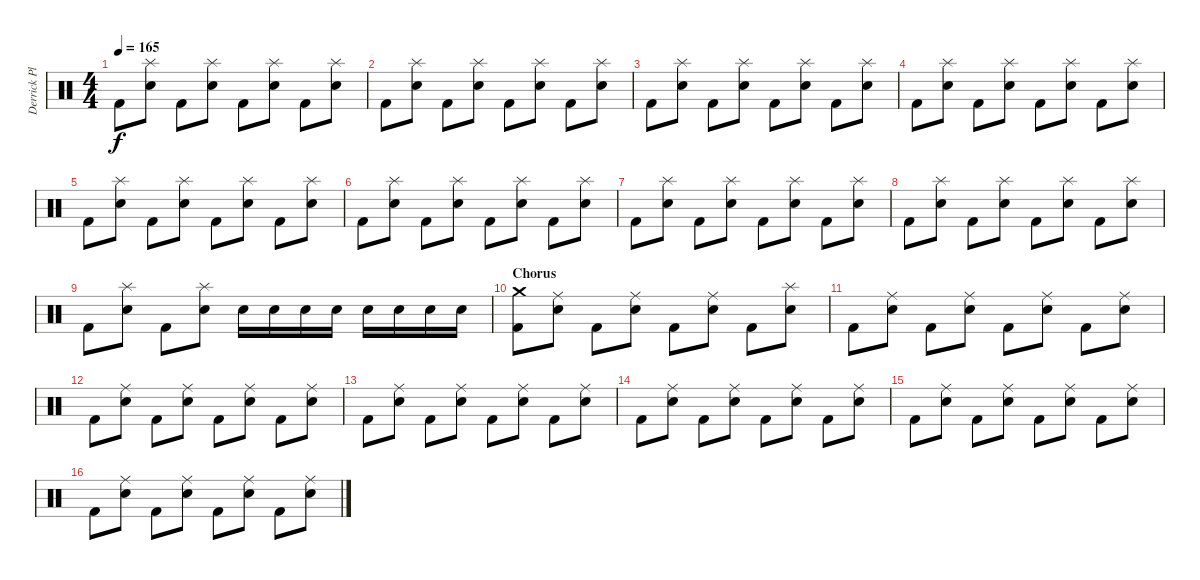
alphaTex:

\track ("Derrick Plourde (R.I.P.)" "Derrick Pl") {instrument percussion}
\staff {score}
\articulation defaults
\ts (4 4)
\tempo 165
\clef neutral
\ks c "Kick (hit) 2".8{dy f}
("Electric Snare (hit)" "Splash (hit)").8 "Kick (hit) 2".8 ("Electric Snare (hit)" "Splash (hit)").8 "Kick (hit) 2".8 ("Electric Snare (hit)" "Splash (hit)").8 "Kick (hit) 2".8 ("Electric Snare (hit)" "Splash (hit)").8 |
"Kick (hit) 2".8 ("Electric Snare (hit)" "Splash (hit)").8 "Kick (hit) 2".8 ("Electric Snare (hit)" "Splash (hit)").8 "Kick (hit) 2".8 ("Electric Snare (hit)" "Splash (hit)").8 "Kick (hit) 2".8 ("Electric Snare (hit)" "Splash (hit)").8 |
"Kick (hit) 2".8 ("Electric Snare (hit)" "Splash (hit)").8 "Kick (hit) 2".8 ("Electric Snare (hit)" "Splash (hit)").8 "Kick (hit) 2".8 ("Electric Snare (hit)" "Splash (hit)").8 "Kick (hit) 2".8 ("Electric Snare (hit)" "Splash (hit)").8 |
"Kick (hit) 2".8 ("Electric Snare (hit)" "Splash (hit)").8 "Kick (hit) 2".8 ("Electric Snare (hit)" "Splash (hit)").8 "Kick (hit) 2".8 ("Electric Snare (hit)" "Splash (hit)").8 "Kick (hit) 2".8 ("Electric Snare (hit)" "Splash (hit)").8 |
"Kick (hit) 2".8 ("Electric Snare (hit)" "Splash (hit)").8 "Kick (hit) 2".8 ("Electric Snare (hit)" "Splash (hit)").8 "Kick (hit) 2".8 ("Electric Snare (hit)" "Splash (hit)").8 "Kick (hit) 2".8 ("Electric Snare (hit)" "Splash (hit)").8 |
"Kick (hit) 2".8 ("Electric Snare (hit)" "Splash (hit)").8 "Kick (hit) 2".8 ("Electric Snare (hit)" "Splash (hit)").8 "Kick (hit) 2".8 ("Electric Snare (hit)" "Splash (hit)").8 "Kick (hit) 2".8 ("Electric Snare (hit)" "Splash (hit)").8 |
"Kick (hit) 2".8 ("Electric Snare (hit)" "Splash (hit)").8 "Kick (hit) 2".8 ("Electric Snare (hit)" "Splash (hit)").8 "Kick (hit) 2".8 ("Electric Snare (hit)" "Splash (hit)").8 "Kick (hit) 2".8 ("Electric Snare (hit)" "Splash (hit)").8 |
"Kick (hit) 2".8 ("Electric Snare (hit)" "Splash (hit)").8 "Kick (hit) 2".8 ("Electric Snare (hit)" "Splash (hit)").8 "Kick (hit) 2".8 ("Electric Snare (hit)" "Splash (hit)").8 "Kick (hit) 2".8 ("Electric Snare (hit)" "Splash (hit)").8 |
"Kick (hit) 2".8 ("Electric Snare (hit)" "Splash (hit)").8 "Kick (hit) 2".8 ("Electric Snare (hit)" "Splash (hit)").8 "Electric Snare (hit)".16 "Electric Snare (hit)".16 "Electric Snare (hit)".16 "Electric Snare (hit)".16 "Electric Snare (hit)".16 "Electric Snare (hit)".16 "Electric Snare (hit)".16 "Electric Snare (hit)".16 |
\section ("" "Chorus")
("Kick (hit) 2" "Crash medium (hit)").8 ("Electric Snare (hit)" "Ride (middle)").8 "Kick (hit) 2".8 ("Electric Snare (hit)" "Ride (middle)").8 "Kick (hit) 2".8 ("Electric Snare (hit)" "Ride (middle)").8 "Kick (hit) 2".8 ("Electric Snare (hit)" "Splash (hit)").8 |
"Kick (hit) 2".8 ("Electric Snare (hit)" "Ride (middle)").8 "Kick (hit) 2".8 ("Electric Snare (hit)" "Ride (middle)").8 "Kick (hit) 2".8 ("Electric Snare (hit)" "Ride (middle)").8 "Kick (hit) 2".8 ("Electric Snare (hit)" "Ride (middle)").8 |
"Kick (hit) 2".8 ("Electric Snare (hit)" "Ride (middle)").8 "Kick (hit) 2".8 ("Electric Snare (hit)" "Ride (middle)").8 "Kick (hit) 2".8 ("Electric Snare (hit)" "Ride (middle)").8 "Kick (hit) 2".8 ("Electric Snare (hit)" "Ride (middle)").8 |
"Kick (hit) 2".8 ("Electric Snare (hit)" "Ride (middle)").8 "Kick (hit) 2".8 ("Electric Snare (hit)" "Ride (middle)").8 "Kick (hit) 2".8 ("Electric Snare (hit)" "Ride (middle)").8 "Kick (hit) 2".8 ("Electric Snare (hit)" "Ride (middle)").8 |
"Kick (hit) 2".8 ("Electric Snare (hit)" "Ride (middle)").8 "Kick (hit) 2".8 ("Electric Snare (hit)" "Ride (middle)").8 "Kick (hit) 2".8 ("Electric Snare (hit)" "Ride (middle)").8 "Kick (hit) 2".8 ("Electric Snare (hit)" "Ride (middle)").8 |
"Kick (hit) 2".8 ("Electric Snare (hit)" "Ride (middle)").8 "Kick (hit) 2".8 ("Electric Snare (hit)" "Ride (middle)").8 "Kick (hit) 2".8 ("Electric Snare (hit)" "Ride (middle)").8 "Kick (hit) 2".8 ("Electric Snare (hit)" "Ride (middle)").8 |
"Kick (hit) 2".8 ("Electric Snare (hit)" "Ride (middle)").8 "Kick (hit) 2".8 ("Electric Snare (hit)" "Ride (middle)").8 "Kick (hit) 2".8 ("Electric Snare (hit)" "Ride (middle)").8 "Kick (hit) 2".8 ("Electric Snare (hit)" "Ride (middle)").8
